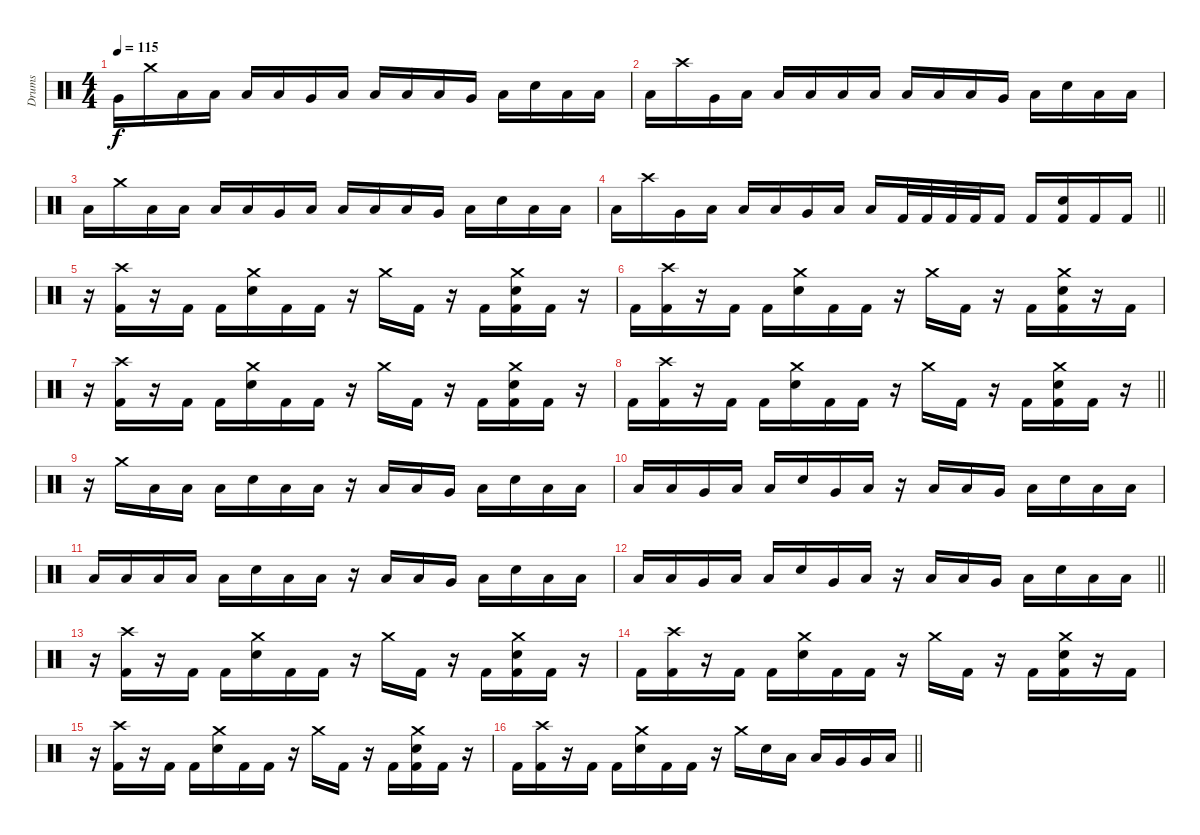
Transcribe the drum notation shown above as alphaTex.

\track ("Drums" "Drums") {instrument percussion}
\staff {score}
\articulation defaults
\ts (4 4)
\tempo 115
\clef neutral
\ks c "Very Low Tom (hit)".16{dy f} "Crash medium (hit)".16 "Low Floor Tom (hit)".16 "Low Floor Tom (hit)".16 "Low Floor Tom (hit)".16 "Low Floor Tom (hit)".16 "Very Low Tom (hit)".16 "Low Floor Tom (hit)".16 "Low Tom (hit)".16 "Low Floor Tom (hit)".16 "Low Floor Tom (hit)".16 "Very Low Tom (hit)".16 "Low Floor Tom (hit)".16 "Snare (hit) 2".16 "Low Floor Tom (hit)".16 "Low Floor Tom (hit)".16
|
"Low Floor Tom (hit)".16 "Crash high (hit)".16 "Very Low Tom (hit)".16 "Low Floor Tom (hit)".16 "Low Floor Tom (hit)".16 "Low Floor Tom (hit)".16 "Low Floor Tom (hit)".16 "Low Floor Tom (hit)".16 "Low Tom (hit)".16 "Low Floor Tom (hit)".16 "Low Floor Tom (hit)".16 "Very Low Tom (hit)".16 "Low Floor Tom (hit)".16 "Snare (hit) 2".16 "Low Floor Tom (hit)".16 "Low Floor Tom (hit)".16 |
"Low Floor Tom (hit)".16 "Crash medium (hit)".16 "Low Floor Tom (hit)".16 "Low Floor Tom (hit)".16 "Low Floor Tom (hit)".16 "Low Floor Tom (hit)".16 "Very Low Tom (hit)".16 "Low Floor Tom (hit)".16 "Low Floor Tom (hit)".16 "Low Floor Tom (hit)".16 "Low Floor Tom (hit)".16 "Very Low Tom (hit)".16 "Low Floor Tom (hit)".16 "Snare (hit) 2".16 "Low Floor Tom (hit)".16 "Low Floor Tom (hit)".16 |
\barLineRight lightlight "Low Floor Tom (hit)".16 "Crash high (hit)".16 "Very Low Tom (hit)".16 "Low Floor Tom (hit)".16 "Low Floor Tom (hit)".16 "Low Floor Tom (hit)".16 "Very Low Tom (hit)".16 "Low Floor Tom (hit)".16 "Low Tom (hit)".16 "Kick (hit) 2".32 "Kick (hit) 2".32 "Kick (hit) 2".32 "Kick (hit) 2".32 "Kick (hit) 2".16 "Kick (hit) 2".16
("Snare (hit) 2" "Kick (hit) 2").16 "Kick (hit) 2".16 "Kick (hit) 2".16 |
r.16 ("Crash high (hit)" "Kick (hit) 2").16 r.16 "Kick (hit) 2".16 "Kick (hit) 2".16 ("Crash medium (hit)" "Snare (hit) 2").16 "Kick (hit) 2".16 "Kick (hit) 2".16 r.16 "Crash medium (hit)".16 "Kick (hit) 2".16 r.16 "Kick (hit) 2".16 ("Crash medium (hit)" "Snare (hit) 2" "Kick (hit) 2").16 "Kick (hit) 2".16 r.16 |
"Kick (hit) 2".16 ("Crash high (hit)" "Kick (hit) 2").16 r.16 "Kick (hit) 2".16 "Kick (hit) 2".16 ("Crash medium (hit)" "Snare (hit) 2").16 "Kick (hit) 2".16 "Kick (hit) 2".16 r.16 "Crash medium (hit)".16 "Kick (hit) 2".16 r.16 "Kick (hit) 2".16 ("Crash medium (hit)" "Snare (hit) 2" "Kick (hit) 2").16 r.16 "Kick (hit) 2".16 |
r.16 ("Crash high (hit)" "Kick (hit) 2").16 r.16 "Kick (hit) 2".16 "Kick (hit) 2".16 ("Crash medium (hit)" "Snare (hit) 2").16 "Kick (hit) 2".16 "Kick (hit) 2".16 r.16 "Crash medium (hit)".16 "Kick (hit) 2".16 r.16 "Kick (hit) 2".16 ("Crash medium (hit)" "Snare (hit) 2" "Kick (hit) 2").16 "Kick (hit) 2".16 r.16 |
\barLineRight lightlight "Kick (hit) 2".16
("Crash high (hit)" "Kick (hit) 2").16 r.16 "Kick (hit) 2".16 "Kick (hit) 2".16 ("Crash medium (hit)" "Snare (hit) 2").16 "Kick (hit) 2".16 "Kick (hit) 2".16 r.16 "Crash medium (hit)".16 "Kick (hit) 2".16 r.16 "Kick (hit) 2".16 ("Crash medium (hit)" "Snare (hit) 2" "Kick (hit) 2").16 "Kick (hit) 2".16 r.16 |
r.16 "Crash medium (hit)".16 "Low Floor Tom (hit)".16 "Low Floor Tom (hit)".16 "Low Floor Tom (hit)".16 "Snare (hit) 2".16 "Low Floor Tom (hit)".16 "Low Floor Tom (hit)".16 r.16 "Low Floor Tom (hit)".16 "Low Floor Tom (hit)".16 "Very Low Tom (hit)".16 "Low Floor Tom (hit)".16 "Snare (hit) 2".16 "Low Floor Tom (hit)".16 "Low Floor Tom (hit)".16 |
"Low Floor Tom (hit)".16 "Low Floor Tom (hit)".16 "Very Low Tom (hit)".16 "Low Floor Tom (hit)".16 "Low Floor Tom (hit)".16 "Snare (hit) 2".16 "Very Low Tom (hit)".16 "Low Floor Tom (hit)".16 r.16 "Low Floor Tom (hit)".16 "Low Floor Tom (hit)".16 "Very Low Tom (hit)".16 "Low Floor Tom (hit)".16 "Snare (hit) 2".16 "Low Floor Tom (hit)".16 "Low Floor Tom (hit)".16 |
"Low Floor Tom (hit)".16 "Low Tom (hit)".16 "Low Floor Tom (hit)".16 "Low Floor Tom (hit)".16 "Low Floor Tom (hit)".16 "Snare (hit) 2".16 "Low Floor Tom (hit)".16 "Low Floor Tom (hit)".16 r.16 "Low Floor Tom (hit)".16 "Low Floor Tom (hit)".16 "Very Low Tom (hit)".16 "Low Floor Tom (hit)".16 "Snare (hit) 2".16 "Low Floor Tom (hit)".16 "Low Floor Tom (hit)".16 |
\barLineRight lightlight "Low Floor Tom (hit)".16 "Low Floor Tom (hit)".16 "Very Low Tom (hit)".16 "Low Floor Tom (hit)".16 "Low Floor Tom (hit)".16 "Snare (hit) 2".16 "Very Low Tom (hit)".16 "Low Floor Tom (hit)".16
r.16 "Low Floor Tom (hit)".16 "Low Floor Tom (hit)".16 "Very Low Tom (hit)".16 "Low Floor Tom (hit)".16 "Snare (hit) 2".16 "Low Floor Tom (hit)".16 "Low Floor Tom (hit)".16 |
r.16 ("Crash high (hit)" "Kick (hit) 2").16 r.16 "Kick (hit) 2".16 "Kick (hit) 2".16 ("Crash medium (hit)" "Snare (hit) 2").16 "Kick (hit) 2".16 "Kick (hit) 2".16 r.16 "Crash medium (hit)".16 "Kick (hit) 2".16 r.16 "Kick (hit) 2".16 ("Crash medium (hit)" "Snare (hit) 2" "Kick (hit) 2").16 "Kick (hit) 2".16 r.16 |
"Kick (hit) 2".16 ("Crash high (hit)" "Kick (hit) 2").16 r.16 "Kick (hit) 2".16 "Kick (hit) 2".16 ("Crash medium (hit)" "Snare (hit) 2").16 "Kick (hit) 2".16 "Kick (hit) 2".16 r.16 "Crash medium (hit)".16 "Kick (hit) 2".16 r.16 "Kick (hit) 2".16 ("Crash medium (hit)" "Snare (hit) 2" "Kick (hit) 2").16 r.16 "Kick (hit) 2".16 |
r.16 ("Crash high (hit)" "Kick (hit) 2").16 r.16 "Kick (hit) 2".16 "Kick (hit) 2".16 ("Crash medium (hit)" "Snare (hit) 2").16 "Kick (hit) 2".16 "Kick (hit) 2".16 r.16 "Crash medium (hit)".16 "Kick (hit) 2".16 r.16 "Kick (hit) 2".16 ("Crash medium (hit)" "Snare (hit) 2" "Kick (hit) 2").16 "Kick (hit) 2".16 r.16 |
\barLineRight lightlight "Kick (hit) 2".16
("Crash high (hit)" "Kick (hit) 2").16 r.16 "Kick (hit) 2".16 "Kick (hit) 2".16 ("Crash medium (hit)" "Snare (hit) 2").16 "Kick (hit) 2".16 "Kick (hit) 2".16 r.16 "Crash medium (hit)".16 "Snare (hit) 2".16 "Low Tom (hit)".16 "Low Tom (hit)".16 "Very Low Tom (hit)".16 "Very Low Tom (hit)".16 "Low Floor Tom (hit)".16
